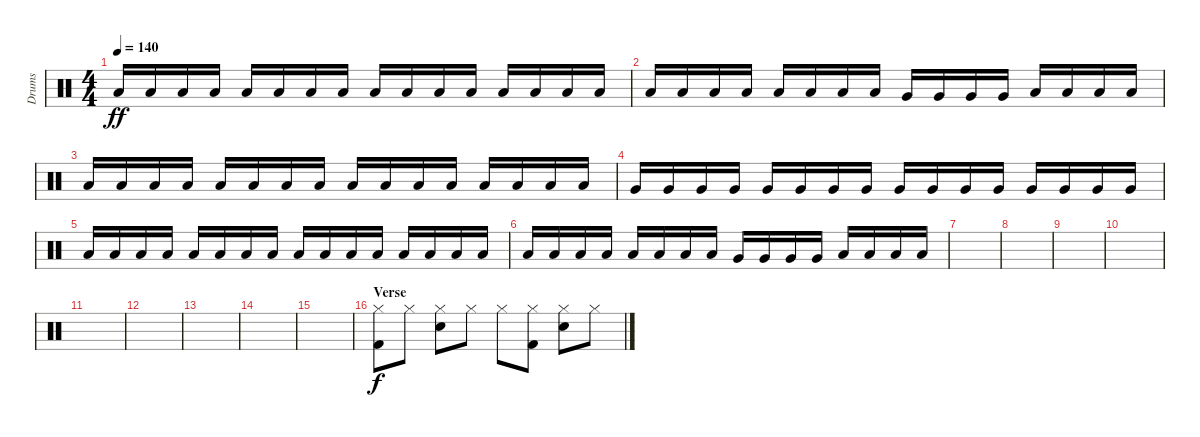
\track ("Drums" "Drums") {instrument percussion}
\staff {score}
\articulation defaults
\ts (4 4)
\tempo 140
\clef neutral
\ks c "Low Tom (hit)".16{dy ff} "Low Tom (hit)".16 "Low Tom (hit)".16 "Low Tom (hit)".16 "Low Tom (hit)".16 "Low Tom (hit)".16 "Low Tom (hit)".16 "Low Tom (hit)".16 "Low Tom (hit)".16 "Low Tom (hit)".16 "Low Tom (hit)".16 "Low Tom (hit)".16 "Low Tom (hit)".16 "Low Tom (hit)".16 "Low Tom (hit)".16 "Low Tom (hit)".16
|
"Low Tom (hit)".16 "Low Tom (hit)".16 "Low Tom (hit)".16 "Low Tom (hit)".16 "Low Tom (hit)".16 "Low Tom (hit)".16 "Low Tom (hit)".16 "Low Tom (hit)".16 "Very Low Tom (hit)".16 "Very Low Tom (hit)".16 "Very Low Tom (hit)".16 "Very Low Tom (hit)".16 "Low Floor Tom (hit)".16 "Low Floor Tom (hit)".16 "Low Floor Tom (hit)".16 "Low Floor Tom (hit)".16 |
"Low Floor Tom (hit)".16 "Low Floor Tom (hit)".16 "Low Floor Tom (hit)".16 "Low Floor Tom (hit)".16 "Low Floor Tom (hit)".16 "Low Floor Tom (hit)".16 "Low Floor Tom (hit)".16 "Low Floor Tom (hit)".16 "Low Floor Tom (hit)".16 "Low Floor Tom (hit)".16 "Low Floor Tom (hit)".16 "Low Floor Tom (hit)".16 "Low Floor Tom (hit)".16 "Low Floor Tom (hit)".16 "Low Floor Tom (hit)".16 "Low Floor Tom (hit)".16 |
"Very Low Tom (hit)".16 "Very Low Tom (hit)".16 "Very Low Tom (hit)".16 "Very Low Tom (hit)".16 "Very Low Tom (hit)".16 "Very Low Tom (hit)".16 "Very Low Tom (hit)".16 "Very Low Tom (hit)".16 "Very Low Tom (hit)".16 "Very Low Tom (hit)".16 "Very Low Tom (hit)".16 "Very Low Tom (hit)".16 "Very Low Tom (hit)".16 "Very Low Tom (hit)".16 "Very Low Tom (hit)".16 "Very Low Tom (hit)".16 |
"Low Tom (hit)".16 "Low Tom (hit)".16 "Low Tom (hit)".16 "Low Tom (hit)".16 "Low Tom (hit)".16 "Low Tom (hit)".16 "Low Tom (hit)".16 "Low Tom (hit)".16 "Low Tom (hit)".16 "Low Tom (hit)".16 "Low Tom (hit)".16 "Low Tom (hit)".16 "Low Tom (hit)".16 "Low Tom (hit)".16 "Low Tom (hit)".16 "Low Tom (hit)".16 |
"Low Tom (hit)".16 "Low Tom (hit)".16 "Low Tom (hit)".16 "Low Tom (hit)".16 "Low Tom (hit)".16 "Low Tom (hit)".16 "Low Tom (hit)".16 "Low Tom (hit)".16 "Very Low Tom (hit)".16 "Very Low Tom (hit)".16 "Very Low Tom (hit)".16 "Very Low Tom (hit)".16 "Low Floor Tom (hit)".16 "Low Floor Tom (hit)".16 "Low Floor Tom (hit)".16 "Low Floor Tom (hit)".16 |
|
|
|
|
|
|
|
|
|
\section ("" "Verse")
("Hi-Hat (closed)" "Kick (hit) 2").8{dy f} "Hi-Hat (closed)".8 ("Hi-Hat (closed)" "Snare (hit) 2").8 "Hi-Hat (closed)".8 "Hi-Hat (closed)".8 ("Hi-Hat (closed)" "Kick (hit) 2").8 ("Hi-Hat (closed)" "Snare (hit) 2").8 "Hi-Hat (closed)".8
